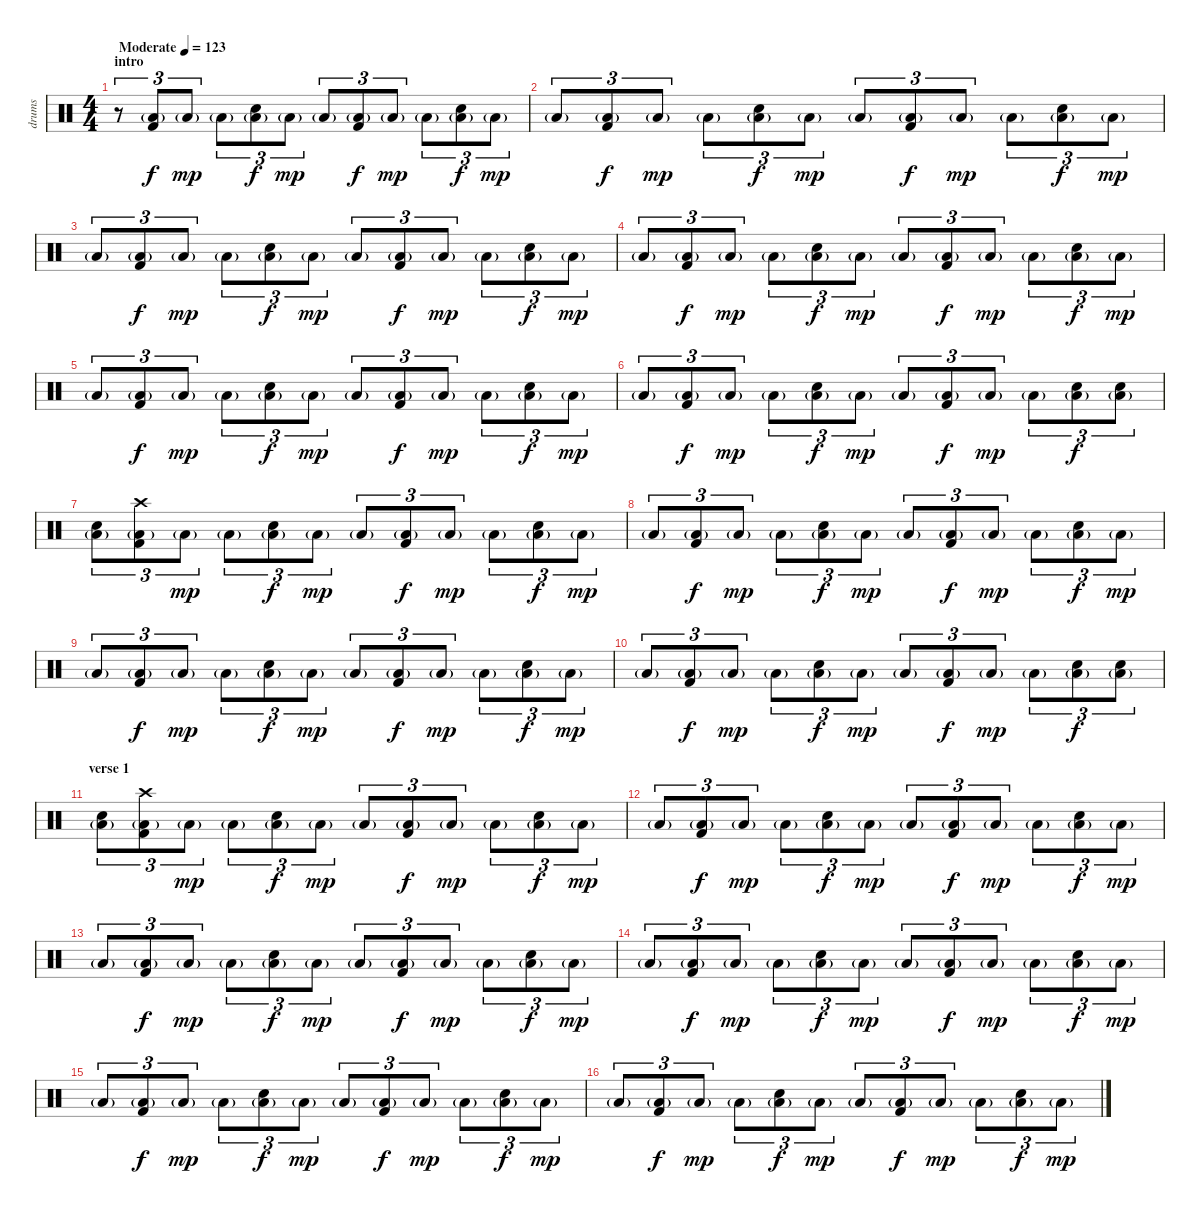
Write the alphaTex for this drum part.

\track ("drums" "drums") {instrument percussion}
\staff {score}
\articulation defaults
\ts (4 4)
\section ("" "intro")
\tempo (123 "Moderate")
\clef neutral
\ks c
r.8{tu (3 2) txt "" dy f} ("Low Floor Tom (hit)"{g} "Kick (hit) 2").8{tu (3 2) txt ""} "Low Floor Tom (hit)"{g}.8{tu (3 2) txt "" dy mp} "Low Floor Tom (hit)"{g}.8{tu (3 2) txt ""} ("Low Floor Tom (hit)"{g} "Electric Snare (hit)").8{tu (3 2) txt "" dy f} "Low Floor Tom (hit)"{g}.8{tu (3 2) txt "" dy mp} "Low Floor Tom (hit)"{g}.8{tu (3 2) txt ""} ("Low Floor Tom (hit)"{g} "Kick (hit) 2").8{tu (3 2) txt "" dy f} "Low Floor Tom (hit)"{g}.8{tu (3 2) txt "" dy mp} "Low Floor Tom (hit)"{g}.8{tu (3 2) txt ""} ("Low Floor Tom (hit)"{g} "Electric Snare (hit)").8{tu (3 2) txt "" dy f} "Low Floor Tom (hit)"{g}.8{tu (3 2) txt "" dy mp} |
"Low Floor Tom (hit)"{g}.8{tu (3 2) txt ""} ("Low Floor Tom (hit)"{g} "Kick (hit) 2").8{tu (3 2) txt "" dy f} "Low Floor Tom (hit)"{g}.8{tu (3 2) txt "" dy mp} "Low Floor Tom (hit)"{g}.8{tu (3 2) txt ""} ("Low Floor Tom (hit)"{g} "Electric Snare (hit)").8{tu (3 2) txt "" dy f} "Low Floor Tom (hit)"{g}.8{tu (3 2) txt "" dy mp} "Low Floor Tom (hit)"{g}.8{tu (3 2) txt ""} ("Low Floor Tom (hit)"{g} "Kick (hit) 2").8{tu (3 2) txt "" dy f} "Low Floor Tom (hit)"{g}.8{tu (3 2) txt "" dy mp} "Low Floor Tom (hit)"{g}.8{tu (3 2) txt ""} ("Low Floor Tom (hit)"{g} "Electric Snare (hit)").8{tu (3 2) txt "" dy f} "Low Floor Tom (hit)"{g}.8{tu (3 2) txt "" dy mp} |
"Low Floor Tom (hit)"{g}.8{tu (3 2) txt ""} ("Low Floor Tom (hit)"{g} "Kick (hit) 2").8{tu (3 2) txt "" dy f} "Low Floor Tom (hit)"{g}.8{tu (3 2) txt "" dy mp} "Low Floor Tom (hit)"{g}.8{tu (3 2) txt ""} ("Low Floor Tom (hit)"{g} "Electric Snare (hit)").8{tu (3 2) txt "" dy f} "Low Floor Tom (hit)"{g}.8{tu (3 2) txt "" dy mp} "Low Floor Tom (hit)"{g}.8{tu (3 2) txt ""} ("Low Floor Tom (hit)"{g} "Kick (hit) 2").8{tu (3 2) txt "" dy f} "Low Floor Tom (hit)"{g}.8{tu (3 2) txt "" dy mp} "Low Floor Tom (hit)"{g}.8{tu (3 2) txt ""} ("Low Floor Tom (hit)"{g} "Electric Snare (hit)").8{tu (3 2) txt "" dy f} "Low Floor Tom (hit)"{g}.8{tu (3 2) txt "" dy mp} |
"Low Floor Tom (hit)"{g}.8{tu (3 2) txt ""} ("Low Floor Tom (hit)"{g} "Kick (hit) 2").8{tu (3 2) txt "" dy f} "Low Floor Tom (hit)"{g}.8{tu (3 2) txt "" dy mp} "Low Floor Tom (hit)"{g}.8{tu (3 2) txt ""} ("Low Floor Tom (hit)"{g} "Electric Snare (hit)").8{tu (3 2) txt "" dy f} "Low Floor Tom (hit)"{g}.8{tu (3 2) txt "" dy mp} "Low Floor Tom (hit)"{g}.8{tu (3 2) txt ""} ("Low Floor Tom (hit)"{g} "Kick (hit) 2").8{tu (3 2) txt "" dy f} "Low Floor Tom (hit)"{g}.8{tu (3 2) txt "" dy mp} "Low Floor Tom (hit)"{g}.8{tu (3 2) txt ""} ("Low Floor Tom (hit)"{g} "Electric Snare (hit)").8{tu (3 2) txt "" dy f} "Low Floor Tom (hit)"{g}.8{tu (3 2) txt "" dy mp} |
"Low Floor Tom (hit)"{g}.8{tu (3 2) txt ""} ("Low Floor Tom (hit)"{g} "Kick (hit) 2").8{tu (3 2) txt "" dy f} "Low Floor Tom (hit)"{g}.8{tu (3 2) txt "" dy mp} "Low Floor Tom (hit)"{g}.8{tu (3 2) txt ""} ("Low Floor Tom (hit)"{g} "Electric Snare (hit)").8{tu (3 2) txt "" dy f} "Low Floor Tom (hit)"{g}.8{tu (3 2) txt "" dy mp} "Low Floor Tom (hit)"{g}.8{tu (3 2) txt ""} ("Low Floor Tom (hit)"{g} "Kick (hit) 2").8{tu (3 2) txt "" dy f} "Low Floor Tom (hit)"{g}.8{tu (3 2) txt "" dy mp} "Low Floor Tom (hit)"{g}.8{tu (3 2) txt ""} ("Low Floor Tom (hit)"{g} "Electric Snare (hit)").8{tu (3 2) txt "" dy f} "Low Floor Tom (hit)"{g}.8{tu (3 2) txt "" dy mp} |
"Low Floor Tom (hit)"{g}.8{tu (3 2) txt ""} ("Low Floor Tom (hit)"{g} "Kick (hit) 2").8{tu (3 2) txt "" dy f} "Low Floor Tom (hit)"{g}.8{tu (3 2) txt "" dy mp} "Low Floor Tom (hit)"{g}.8{tu (3 2) txt ""} ("Low Floor Tom (hit)"{g} "Electric Snare (hit)").8{tu (3 2) txt "" dy f} "Low Floor Tom (hit)"{g}.8{tu (3 2) txt "" dy mp} "Low Floor Tom (hit)"{g}.8{tu (3 2) txt ""} ("Low Floor Tom (hit)"{g} "Kick (hit) 2").8{tu (3 2) txt "" dy f} "Low Floor Tom (hit)"{g}.8{tu (3 2) txt "" dy mp} "Low Floor Tom (hit)"{g}.8{tu (3 2) txt ""} ("Low Floor Tom (hit)"{g} "Electric Snare (hit)").8{tu (3 2) txt "" dy f} ("Low Floor Tom (hit)"{g} "Electric Snare (hit)").8{tu (3 2) txt ""} |
("Low Floor Tom (hit)"{g} "Electric Snare (hit)").8{tu (3 2) txt ""} ("Low Floor Tom (hit)"{g} "Kick (hit) 2" "Crash high (hit)").8{tu (3 2) txt ""} "Low Floor Tom (hit)"{g}.8{tu (3 2) txt "" dy mp} "Low Floor Tom (hit)"{g}.8{tu (3 2) txt ""} ("Low Floor Tom (hit)"{g} "Electric Snare (hit)").8{tu (3 2) txt "" dy f} "Low Floor Tom (hit)"{g}.8{tu (3 2) txt "" dy mp} "Low Floor Tom (hit)"{g}.8{tu (3 2) txt ""} ("Low Floor Tom (hit)"{g} "Kick (hit) 2").8{tu (3 2) txt "" dy f} "Low Floor Tom (hit)"{g}.8{tu (3 2) txt "" dy mp} "Low Floor Tom (hit)"{g}.8{tu (3 2) txt ""} ("Low Floor Tom (hit)"{g} "Electric Snare (hit)").8{tu (3 2) txt "" dy f} "Low Floor Tom (hit)"{g}.8{tu (3 2) txt "" dy mp} |
"Low Floor Tom (hit)"{g}.8{tu (3 2) txt ""} ("Low Floor Tom (hit)"{g} "Kick (hit) 2").8{tu (3 2) txt "" dy f} "Low Floor Tom (hit)"{g}.8{tu (3 2) txt "" dy mp} "Low Floor Tom (hit)"{g}.8{tu (3 2) txt ""} ("Low Floor Tom (hit)"{g} "Electric Snare (hit)").8{tu (3 2) txt "" dy f} "Low Floor Tom (hit)"{g}.8{tu (3 2) txt "" dy mp} "Low Floor Tom (hit)"{g}.8{tu (3 2) txt ""} ("Low Floor Tom (hit)"{g} "Kick (hit) 2").8{tu (3 2) txt "" dy f} "Low Floor Tom (hit)"{g}.8{tu (3 2) txt "" dy mp} "Low Floor Tom (hit)"{g}.8{tu (3 2) txt ""} ("Low Floor Tom (hit)"{g} "Electric Snare (hit)").8{tu (3 2) txt "" dy f} "Low Floor Tom (hit)"{g}.8{tu (3 2) txt "" dy mp} |
"Low Floor Tom (hit)"{g}.8{tu (3 2) txt ""} ("Low Floor Tom (hit)"{g} "Kick (hit) 2").8{tu (3 2) txt "" dy f} "Low Floor Tom (hit)"{g}.8{tu (3 2) txt "" dy mp} "Low Floor Tom (hit)"{g}.8{tu (3 2) txt ""} ("Low Floor Tom (hit)"{g} "Electric Snare (hit)").8{tu (3 2) txt "" dy f} "Low Floor Tom (hit)"{g}.8{tu (3 2) txt "" dy mp} "Low Floor Tom (hit)"{g}.8{tu (3 2) txt ""} ("Low Floor Tom (hit)"{g} "Kick (hit) 2").8{tu (3 2) txt "" dy f} "Low Floor Tom (hit)"{g}.8{tu (3 2) txt "" dy mp} "Low Floor Tom (hit)"{g}.8{tu (3 2) txt ""} ("Low Floor Tom (hit)"{g} "Electric Snare (hit)").8{tu (3 2) txt "" dy f} "Low Floor Tom (hit)"{g}.8{tu (3 2) txt "" dy mp} |
"Low Floor Tom (hit)"{g}.8{tu (3 2) txt ""} ("Low Floor Tom (hit)"{g} "Kick (hit) 2").8{tu (3 2) txt "" dy f} "Low Floor Tom (hit)"{g}.8{tu (3 2) txt "" dy mp} "Low Floor Tom (hit)"{g}.8{tu (3 2) txt ""} ("Low Floor Tom (hit)"{g} "Electric Snare (hit)").8{tu (3 2) txt "" dy f} "Low Floor Tom (hit)"{g}.8{tu (3 2) txt "" dy mp} "Low Floor Tom (hit)"{g}.8{tu (3 2) txt ""} ("Low Floor Tom (hit)"{g} "Kick (hit) 2").8{tu (3 2) txt "" dy f} "Low Floor Tom (hit)"{g}.8{tu (3 2) txt "" dy mp} "Low Floor Tom (hit)"{g}.8{tu (3 2) txt ""} ("Low Floor Tom (hit)"{g} "Electric Snare (hit)").8{tu (3 2) txt "" dy f} ("Low Floor Tom (hit)"{g} "Electric Snare (hit)").8{tu (3 2) txt ""} |
\section ("" "verse 1 ")
("Low Floor Tom (hit)"{g} "Electric Snare (hit)").8{tu (3 2) txt ""} ("Low Floor Tom (hit)"{g} "Kick (hit) 2" "Crash high (hit)").8{tu (3 2) txt ""} "Low Floor Tom (hit)"{g}.8{tu (3 2) txt "" dy mp} "Low Floor Tom (hit)"{g}.8{tu (3 2) txt ""} ("Low Floor Tom (hit)"{g} "Electric Snare (hit)").8{tu (3 2) txt "" dy f} "Low Floor Tom (hit)"{g}.8{tu (3 2) txt "" dy mp} "Low Floor Tom (hit)"{g}.8{tu (3 2) txt ""} ("Low Floor Tom (hit)"{g} "Kick (hit) 2").8{tu (3 2) txt "" dy f} "Low Floor Tom (hit)"{g}.8{tu (3 2) txt "" dy mp} "Low Floor Tom (hit)"{g}.8{tu (3 2) txt ""} ("Low Floor Tom (hit)"{g} "Electric Snare (hit)").8{tu (3 2) txt "" dy f} "Low Floor Tom (hit)"{g}.8{tu (3 2) txt "" dy mp} |
"Low Floor Tom (hit)"{g}.8{tu (3 2) txt ""} ("Low Floor Tom (hit)"{g} "Kick (hit) 2").8{tu (3 2) txt "" dy f} "Low Floor Tom (hit)"{g}.8{tu (3 2) txt "" dy mp} "Low Floor Tom (hit)"{g}.8{tu (3 2) txt ""} ("Low Floor Tom (hit)"{g} "Electric Snare (hit)").8{tu (3 2) txt "" dy f} "Low Floor Tom (hit)"{g}.8{tu (3 2) txt "" dy mp} "Low Floor Tom (hit)"{g}.8{tu (3 2) txt ""} ("Low Floor Tom (hit)"{g} "Kick (hit) 2").8{tu (3 2) txt "" dy f} "Low Floor Tom (hit)"{g}.8{tu (3 2) txt "" dy mp} "Low Floor Tom (hit)"{g}.8{tu (3 2) txt ""} ("Low Floor Tom (hit)"{g} "Electric Snare (hit)").8{tu (3 2) txt "" dy f} "Low Floor Tom (hit)"{g}.8{tu (3 2) txt "" dy mp} |
"Low Floor Tom (hit)"{g}.8{tu (3 2) txt ""} ("Low Floor Tom (hit)"{g} "Kick (hit) 2").8{tu (3 2) txt "" dy f} "Low Floor Tom (hit)"{g}.8{tu (3 2) txt "" dy mp} "Low Floor Tom (hit)"{g}.8{tu (3 2) txt ""} ("Low Floor Tom (hit)"{g} "Electric Snare (hit)").8{tu (3 2) txt "" dy f} "Low Floor Tom (hit)"{g}.8{tu (3 2) txt "" dy mp} "Low Floor Tom (hit)"{g}.8{tu (3 2) txt ""} ("Low Floor Tom (hit)"{g} "Kick (hit) 2").8{tu (3 2) txt "" dy f} "Low Floor Tom (hit)"{g}.8{tu (3 2) txt "" dy mp} "Low Floor Tom (hit)"{g}.8{tu (3 2) txt ""} ("Low Floor Tom (hit)"{g} "Electric Snare (hit)").8{tu (3 2) txt "" dy f} "Low Floor Tom (hit)"{g}.8{tu (3 2) txt "" dy mp} |
"Low Floor Tom (hit)"{g}.8{tu (3 2) txt ""} ("Low Floor Tom (hit)"{g} "Kick (hit) 2").8{tu (3 2) txt "" dy f} "Low Floor Tom (hit)"{g}.8{tu (3 2) txt "" dy mp} "Low Floor Tom (hit)"{g}.8{tu (3 2) txt ""} ("Low Floor Tom (hit)"{g} "Electric Snare (hit)").8{tu (3 2) txt "" dy f} "Low Floor Tom (hit)"{g}.8{tu (3 2) txt "" dy mp} "Low Floor Tom (hit)"{g}.8{tu (3 2) txt ""} ("Low Floor Tom (hit)"{g} "Kick (hit) 2").8{tu (3 2) txt "" dy f} "Low Floor Tom (hit)"{g}.8{tu (3 2) txt "" dy mp} "Low Floor Tom (hit)"{g}.8{tu (3 2) txt ""} ("Low Floor Tom (hit)"{g} "Electric Snare (hit)").8{tu (3 2) txt "" dy f} "Low Floor Tom (hit)"{g}.8{tu (3 2) txt "" dy mp} |
"Low Floor Tom (hit)"{g}.8{tu (3 2) txt ""} ("Low Floor Tom (hit)"{g} "Kick (hit) 2").8{tu (3 2) txt "" dy f} "Low Floor Tom (hit)"{g}.8{tu (3 2) txt "" dy mp} "Low Floor Tom (hit)"{g}.8{tu (3 2) txt ""} ("Low Floor Tom (hit)"{g} "Electric Snare (hit)").8{tu (3 2) txt "" dy f} "Low Floor Tom (hit)"{g}.8{tu (3 2) txt "" dy mp} "Low Floor Tom (hit)"{g}.8{tu (3 2) txt ""} ("Low Floor Tom (hit)"{g} "Kick (hit) 2").8{tu (3 2) txt "" dy f} "Low Floor Tom (hit)"{g}.8{tu (3 2) txt "" dy mp} "Low Floor Tom (hit)"{g}.8{tu (3 2) txt ""} ("Low Floor Tom (hit)"{g} "Electric Snare (hit)").8{tu (3 2) txt "" dy f} "Low Floor Tom (hit)"{g}.8{tu (3 2) txt "" dy mp} |
"Low Floor Tom (hit)"{g}.8{tu (3 2) txt ""} ("Low Floor Tom (hit)"{g} "Kick (hit) 2").8{tu (3 2) txt "" dy f} "Low Floor Tom (hit)"{g}.8{tu (3 2) txt "" dy mp} "Low Floor Tom (hit)"{g}.8{tu (3 2) txt ""} ("Low Floor Tom (hit)"{g} "Electric Snare (hit)").8{tu (3 2) txt "" dy f} "Low Floor Tom (hit)"{g}.8{tu (3 2) txt "" dy mp} "Low Floor Tom (hit)"{g}.8{tu (3 2) txt ""} ("Low Floor Tom (hit)"{g} "Kick (hit) 2").8{tu (3 2) txt "" dy f} "Low Floor Tom (hit)"{g}.8{tu (3 2) txt "" dy mp} "Low Floor Tom (hit)"{g}.8{tu (3 2) txt ""} ("Low Floor Tom (hit)"{g} "Electric Snare (hit)").8{tu (3 2) txt "" dy f} "Low Floor Tom (hit)"{g}.8{tu (3 2) txt "" dy mp}
